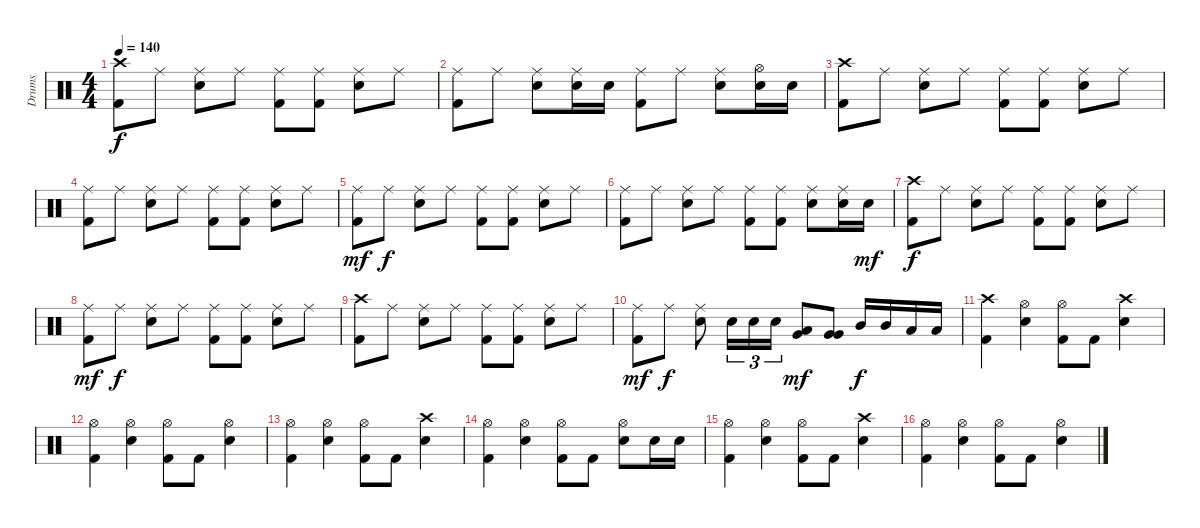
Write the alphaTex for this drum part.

\track ("Drums" "Drums") {instrument percussion}
\staff {score}
\articulation defaults
\ts (4 4)
\tempo 140
\clef neutral
\ks c
("Crash high (hit)" "Kick (hit) 2").8{dy f} "Ride (middle)".8 ("Ride (middle)" "Snare (hit) 2").8 "Ride (middle)".8 ("Ride (middle)" "Kick (hit) 2").8 ("Ride (middle)" "Kick (hit) 2").8 ("Ride (middle)" "Snare (hit) 2").8 "Ride (middle)".8 |
("Ride (middle)" "Kick (hit) 2").8 "Ride (middle)".8 ("Ride (middle)" "Snare (hit) 2").8 ("Ride (middle)" "Snare (hit) 2").16 "Snare (hit) 2".16 ("Ride (middle)" "Kick (hit) 2").8 "Ride (middle)".8 ("Ride (middle)" "Snare (hit) 2").8 ("Hi-Hat (open)" "Snare (hit) 2").16 "Snare (hit) 2".16 |
("Crash high (hit)" "Kick (hit) 2").8 "Ride (middle)".8 ("Ride (middle)" "Snare (hit) 2").8 "Ride (middle)".8 ("Ride (middle)" "Kick (hit) 2").8 ("Ride (middle)" "Kick (hit) 2").8 ("Ride (middle)" "Snare (hit) 2").8 "Ride (middle)".8 |
("Ride (middle)" "Kick (hit) 2").8 "Ride (middle)".8 ("Ride (middle)" "Snare (hit) 2").8 "Ride (middle)".8 ("Ride (middle)" "Kick (hit) 2").8 ("Ride (middle)" "Kick (hit) 2").8 ("Ride (middle)" "Snare (hit) 2").8 "Ride (middle)".8 |
("Ride (middle)" "Kick (hit) 2").8{dy mf} "Ride (middle)".8{dy f} ("Ride (middle)" "Snare (hit) 2").8 "Ride (middle)".8 ("Ride (middle)" "Kick (hit) 2").8 ("Ride (middle)" "Kick (hit) 2").8 ("Ride (middle)" "Snare (hit) 2").8 "Ride (middle)".8 |
("Ride (middle)" "Kick (hit) 2").8 "Ride (middle)".8 ("Ride (middle)" "Snare (hit) 2").8 "Ride (middle)".8 ("Ride (middle)" "Kick (hit) 2").8 ("Ride (middle)" "Kick (hit) 2").8 ("Ride (middle)" "Snare (hit) 2").8 ("Ride (middle)" "Snare (hit) 2").16 "Snare (hit) 2".16{dy mf} |
("Crash high (hit)" "Kick (hit) 2").8{dy f} "Ride (middle)".8 ("Ride (middle)" "Snare (hit) 2").8 "Ride (middle)".8 ("Ride (middle)" "Kick (hit) 2").8 ("Ride (middle)" "Kick (hit) 2").8 ("Ride (middle)" "Snare (hit) 2").8 "Ride (middle)".8 |
("Ride (middle)" "Kick (hit) 2").8{dy mf} "Ride (middle)".8{dy f} ("Ride (middle)" "Snare (hit) 2").8 "Ride (middle)".8 ("Ride (middle)" "Kick (hit) 2").8 ("Ride (middle)" "Kick (hit) 2").8 ("Ride (middle)" "Snare (hit) 2").8 "Ride (middle)".8 |
("Crash high (hit)" "Kick (hit) 2").8 "Ride (middle)".8 ("Ride (middle)" "Snare (hit) 2").8 "Ride (middle)".8 ("Ride (middle)" "Kick (hit) 2").8 ("Ride (middle)" "Kick (hit) 2").8 ("Ride (middle)" "Snare (hit) 2").8 "Ride (middle)".8 |
("Ride (middle)" "Kick (hit) 2").8{dy mf} "Ride (middle)".8{dy f} ("Ride (middle)" "Snare (hit) 2").8 "Snare (hit) 2".16{tu (3 2)} "Snare (hit) 2".16{tu (3 2)} "Snare (hit) 2".16{tu (3 2)} ("Low Tom (hit)" "Very Low Tom (hit)").8{dy mf} ("Very Low Tom (hit)" "Very Low Tom (hit)").8 "Mid Tom (hit)".16{dy f} "Mid Tom (hit)".16 "Low Tom (hit)".16 "Low Tom (hit)".16 |
("Crash high (hit)" "Kick (hit) 2").4 ("Hi-Hat (open)" "Snare (hit) 2").4 ("Hi-Hat (open)" "Kick (hit) 2").8 "Kick (hit) 2".8 ("Crash high (hit)" "Snare (hit) 2").4 |
("Hi-Hat (open)" "Kick (hit) 2").4 ("Hi-Hat (open)" "Snare (hit) 2").4 ("Hi-Hat (open)" "Kick (hit) 2").8 "Kick (hit) 2".8 ("Hi-Hat (open)" "Snare (hit) 2").4 |
("Hi-Hat (open)" "Kick (hit) 2").4 ("Hi-Hat (open)" "Snare (hit) 2").4 ("Hi-Hat (open)" "Kick (hit) 2").8 "Kick (hit) 2".8 ("Crash high (hit)" "Snare (hit) 2").4 |
("Hi-Hat (open)" "Kick (hit) 2").4 ("Hi-Hat (open)" "Snare (hit) 2").4 ("Hi-Hat (open)" "Kick (hit) 2").8 "Kick (hit) 2".8 ("Hi-Hat (open)" "Snare (hit) 2").8 "Snare (hit) 2".16 "Snare (hit) 2".16 |
("Hi-Hat (open)" "Kick (hit) 2").4 ("Hi-Hat (open)" "Snare (hit) 2").4 ("Hi-Hat (open)" "Kick (hit) 2").8 "Kick (hit) 2".8 ("Crash high (hit)" "Snare (hit) 2").4 |
("Hi-Hat (open)" "Kick (hit) 2").4 ("Hi-Hat (open)" "Snare (hit) 2").4 ("Hi-Hat (open)" "Kick (hit) 2").8 "Kick (hit) 2".8 ("Hi-Hat (open)" "Snare (hit) 2").4
